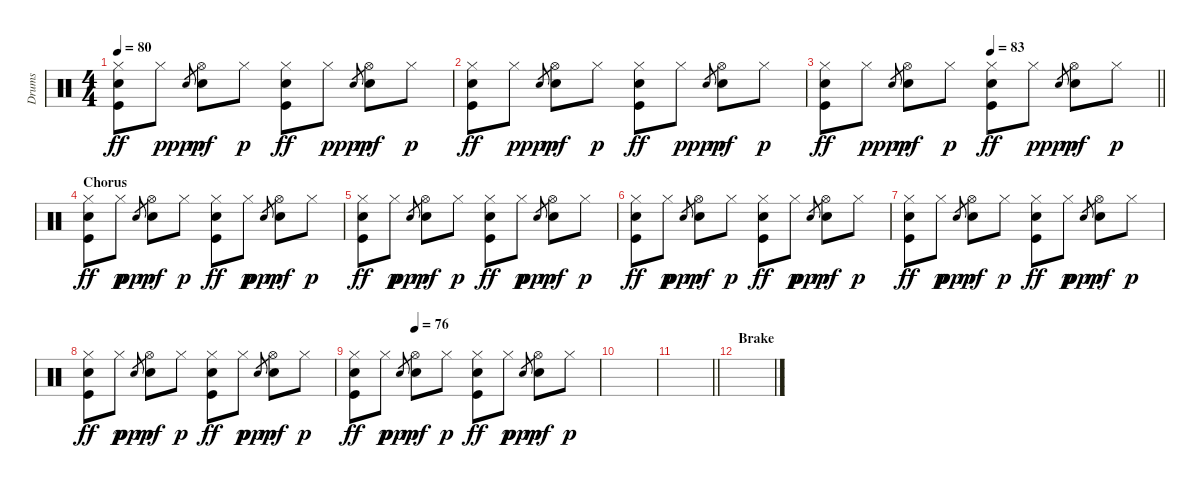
\track ("Drums" "Drums") {instrument percussion}
\staff {score}
\articulation defaults
\ts (4 4)
\tempo 80
\clef neutral
\ks c
("Hi-Hat (closed)" "Snare (hit) 2" "Kick (hit)").8{dy ff} "Hi-Hat (closed)".8{dy p} "Snare (hit) 2"{x}.8{gr dy ppp} ("Hi-Hat (open)" "Snare (hit) 2").8{dy mf} "Hi-Hat (closed)".8{dy p} ("Hi-Hat (closed)" "Snare (hit) 2" "Kick (hit)").8{dy ff} "Hi-Hat (closed)".8{dy p} "Snare (hit) 2"{x}.8{gr dy ppp} ("Hi-Hat (open)" "Snare (hit) 2").8{dy mf} "Hi-Hat (closed)".8{dy p} |
("Hi-Hat (closed)" "Snare (hit) 2" "Kick (hit)").8{dy ff} "Hi-Hat (closed)".8{dy p} "Snare (hit) 2"{x}.8{gr dy ppp} ("Hi-Hat (open)" "Snare (hit) 2").8{dy mf} "Hi-Hat (closed)".8{dy p} ("Hi-Hat (closed)" "Snare (hit) 2" "Kick (hit)").8{dy ff} "Hi-Hat (closed)".8{dy p} "Snare (hit) 2"{x}.8{gr dy ppp} ("Hi-Hat (open)" "Snare (hit) 2").8{dy mf} "Hi-Hat (closed)".8{dy p} |
\tempo (83 0.5)
\barLineRight lightlight
("Hi-Hat (closed)" "Snare (hit) 2" "Kick (hit)").8{dy ff} "Hi-Hat (closed)".8{dy p} "Snare (hit) 2"{x}.8{gr dy ppp} ("Hi-Hat (open)" "Snare (hit) 2").8{dy mf} "Hi-Hat (closed)".8{dy p} ("Hi-Hat (closed)" "Snare (hit) 2" "Kick (hit)").8{dy ff} "Hi-Hat (closed)".8{dy p} "Snare (hit) 2"{x}.8{gr dy ppp} ("Hi-Hat (open)" "Snare (hit) 2").8{dy mf} "Hi-Hat (closed)".8{dy p} |
\section ("" "Chorus")
("Hi-Hat (closed)" "Snare (hit) 2" "Kick (hit)").8{dy ff} "Hi-Hat (closed)".8{dy p} "Snare (hit) 2"{x}.8{gr dy ppp} ("Hi-Hat (open)" "Snare (hit) 2").8{dy mf} "Hi-Hat (closed)".8{dy p} ("Hi-Hat (closed)" "Snare (hit) 2" "Kick (hit)").8{dy ff} "Hi-Hat (closed)".8{dy p} "Snare (hit) 2"{x}.8{gr dy ppp} ("Hi-Hat (open)" "Snare (hit) 2").8{dy mf} "Hi-Hat (closed)".8{dy p} |
("Hi-Hat (closed)" "Snare (hit) 2" "Kick (hit)").8{dy ff} "Hi-Hat (closed)".8{dy p} "Snare (hit) 2"{x}.8{gr dy ppp} ("Hi-Hat (open)" "Snare (hit) 2").8{dy mf} "Hi-Hat (closed)".8{dy p} ("Hi-Hat (closed)" "Snare (hit) 2" "Kick (hit)").8{dy ff} "Hi-Hat (closed)".8{dy p} "Snare (hit) 2"{x}.8{gr dy ppp} ("Hi-Hat (open)" "Snare (hit) 2").8{dy mf} "Hi-Hat (closed)".8{dy p} |
("Hi-Hat (closed)" "Snare (hit) 2" "Kick (hit)").8{dy ff} "Hi-Hat (closed)".8{dy p} "Snare (hit) 2"{x}.8{gr dy ppp} ("Hi-Hat (open)" "Snare (hit) 2").8{dy mf} "Hi-Hat (closed)".8{dy p} ("Hi-Hat (closed)" "Snare (hit) 2" "Kick (hit)").8{dy ff} "Hi-Hat (closed)".8{dy p} "Snare (hit) 2"{x}.8{gr dy ppp} ("Hi-Hat (open)" "Snare (hit) 2").8{dy mf} "Hi-Hat (closed)".8{dy p} |
("Hi-Hat (closed)" "Snare (hit) 2" "Kick (hit)").8{dy ff} "Hi-Hat (closed)".8{dy p} "Snare (hit) 2"{x}.8{gr dy ppp} ("Hi-Hat (open)" "Snare (hit) 2").8{dy mf} "Hi-Hat (closed)".8{dy p} ("Hi-Hat (closed)" "Snare (hit) 2" "Kick (hit)").8{dy ff} "Hi-Hat (closed)".8{dy p} "Snare (hit) 2"{x}.8{gr dy ppp} ("Hi-Hat (open)" "Snare (hit) 2").8{dy mf} "Hi-Hat (closed)".8{dy p} |
("Hi-Hat (closed)" "Snare (hit) 2" "Kick (hit)").8{dy ff} "Hi-Hat (closed)".8{dy p} "Snare (hit) 2"{x}.8{gr dy ppp} ("Hi-Hat (open)" "Snare (hit) 2").8{dy mf} "Hi-Hat (closed)".8{dy p} ("Hi-Hat (closed)" "Snare (hit) 2" "Kick (hit)").8{dy ff} "Hi-Hat (closed)".8{dy p} "Snare (hit) 2"{x}.8{gr dy ppp} ("Hi-Hat (open)" "Snare (hit) 2").8{dy mf} "Hi-Hat (closed)".8{dy p} |
\tempo (76 0.25)
("Hi-Hat (closed)" "Snare (hit) 2" "Kick (hit)").8{dy ff} "Hi-Hat (closed)".8{dy p} "Snare (hit) 2"{x}.8{gr dy ppp} ("Hi-Hat (open)" "Snare (hit) 2").8{dy mf} "Hi-Hat (closed)".8{dy p} ("Hi-Hat (closed)" "Snare (hit) 2" "Kick (hit)").8{dy ff} "Hi-Hat (closed)".8{dy p} "Snare (hit) 2"{x}.8{gr dy ppp} ("Hi-Hat (open)" "Snare (hit) 2").8{dy mf} "Hi-Hat (closed)".8{dy p} |
|
\barLineRight lightlight
|
\section ("" "Brake")
